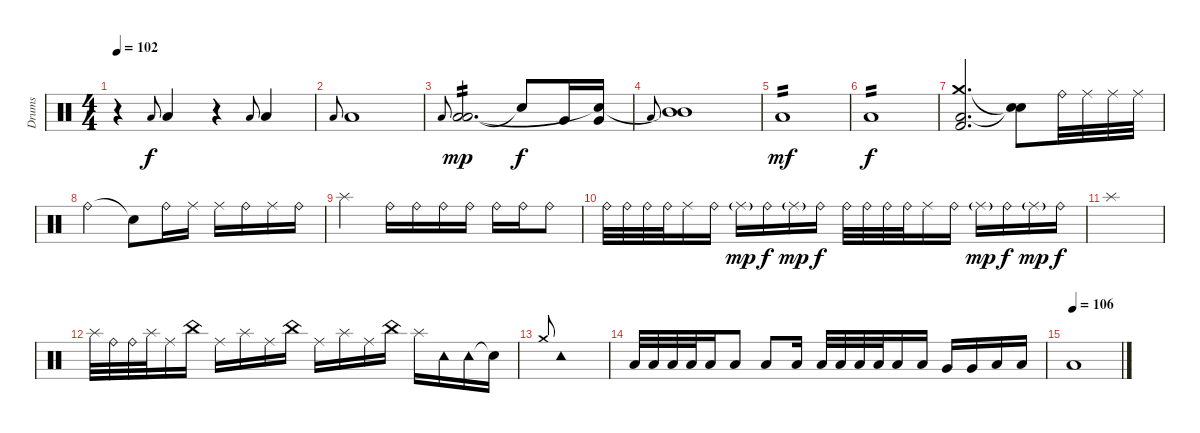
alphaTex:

\track ("Drums" "Drums") {instrument percussion}
\staff {score}
\articulation defaults
\ts (4 4)
\tempo 102
\clef neutral
\ks c
r.4{dy f} "Low Tom (hit)".8{gr onbeat} "Low Tom (hit)".4 r.4 "Low Tom (hit)".8{gr onbeat} "Low Tom (hit)".4 |
"Low Tom (hit)".8{gr onbeat} "Low Tom (hit)".1 |
"Low Tom (hit)".8{gr onbeat} ("Low Tom (hit)" "Low Floor Tom (hit)").2{d tp 2 dy mp} "Snare (hit)"{t}.8{dy f} "Very Low Tom (hit)".16 ("Very Low Tom (hit)" "Snare (hit)"{t}).16 |
"Low Tom (hit)".8{gr onbeat} ("Mid Tom (hit)" "Mid Tom (hit)"{t}).1 |
"Low Floor Tom (hit)".1{tp 2 dy mf} |
"Low Floor Tom (hit)".1{tp 2 dy f} |
("Crash medium (hit)" "Low Floor Tom (hit)" "Kick (hit) 2").2{d} ("Snare (hit)"{t} "Snare (hit)"{t}).8 "Ride (bell)".32 "Ride (middle)".32 "Ride (middle)".32 "Ride (middle)".32 |
"Ride (bell)".2 "Snare (hit)"{t}.8 "Ride (bell)".16 "Ride (middle)".16 "Ride (middle)".16 "Ride (bell)".16 "Ride (middle)".16 "Ride (bell)".16 |
"Splash (hit)".2 "Ride (bell)".16 "Ride (bell)".16 "Ride (bell)".16 "Ride (bell)".16 "Ride (bell)".16 "Ride (bell)".16 "Ride (bell)".8 |
"Ride (bell)".32 "Ride (bell)".32 "Ride (bell)".32 "Ride (bell)".32 "Ride (middle)".16 "Ride (bell)".16 "Ride (middle)"{g}.16{dy mp} "Ride (bell)".16{dy f} "Ride (middle)"{g}.16{dy mp} "Ride (bell)".16{dy f} "Ride (bell)".32 "Ride (bell)".32 "Ride (bell)".32 "Ride (bell)".32 "Ride (middle)".16 "Ride (bell)".16 "Ride (middle)"{g}.16{dy mp} "Ride (bell)".16{dy f} "Ride (middle)"{g}.16{dy mp} "Ride (bell)".16{dy f} |
"Splash (hit)".1 |
"Splash (hit)".32 "Ride (bell)".32 "Ride (bell)".32 "Splash (hit)".32 "Ride (middle)".16 "China (hit)".16 "Ride (middle)".16 "Splash (hit)".16 "Ride (middle)".16 "China (hit)".16 "Ride (middle)".16 "Splash (hit)".16 "Ride (middle)".16 "China (hit)".16 "Splash (hit)".16 "Tambourine (hit)".16 "Tambourine (hit)".16 "Snare (hit)"{t}.16 |
"Crash medium (hit)".8{gr onbeat} "Tambourine (hit)".1 |
"Low Tom (hit)".32 "Low Tom (hit)".32 "Low Tom (hit)".32 "Low Tom (hit)".32 "Low Tom (hit)".16 "Low Tom (hit)".8 "Low Tom (hit)".8 "Low Tom (hit)".16 "Low Tom (hit)".32 "Low Tom (hit)".32 "Low Tom (hit)".32 "Low Tom (hit)".32 "Low Tom (hit)".16 "Low Tom (hit)".16 "Very Low Tom (hit)".16 "Very Low Tom (hit)".16 "Low Floor Tom (hit)".16 "Low Floor Tom (hit)".16 |
\tempo (106)
"Low Floor Tom (hit)".1
